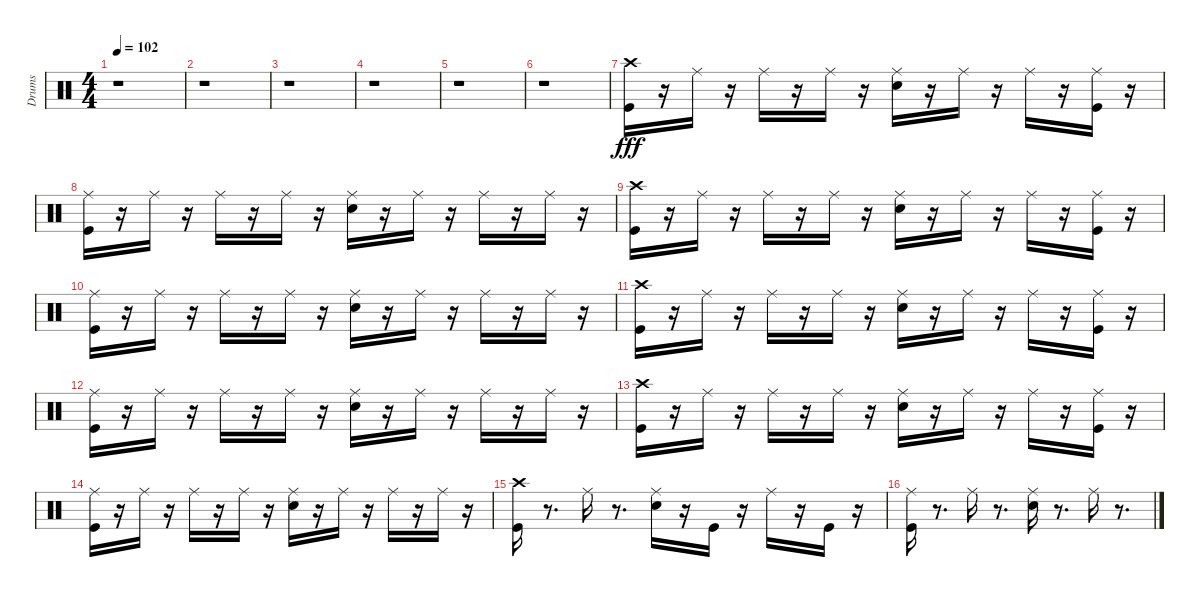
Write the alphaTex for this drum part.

\track ("Drums" "Drums") {instrument percussion}
\staff {score}
\articulation defaults
\ts (4 4)
\tempo 102
\clef neutral
\ks c
r.1{dy fff} |
r.1 |
r.1 |
r.1 |
r.1 |
r.1 |
("Crash high (hit)" "Kick (hit)").16 r.16 "Ride (middle)".16 r.16 "Ride (middle)".16 r.16 "Ride (middle)".16 r.16 ("Snare (hit) 2" "Ride (middle)").16 r.16 "Ride (middle)".16 r.16 "Ride (middle)".16 r.16 ("Kick (hit)" "Ride (middle)").16 r.16 |
("Ride (middle)" "Kick (hit)").16 r.16 "Ride (middle)".16 r.16 "Ride (middle)".16 r.16 "Ride (middle)".16 r.16 ("Ride (middle)" "Snare (hit) 2").16 r.16 "Ride (middle)".16 r.16 "Ride (middle)".16 r.16 "Ride (middle)".16 r.16 |
("Kick (hit)" "Crash high (hit)").16 r.16 "Ride (middle)".16 r.16 "Ride (middle)".16 r.16 "Ride (middle)".16 r.16 ("Ride (middle)" "Snare (hit) 2").16 r.16 "Ride (middle)".16 r.16 "Ride (middle)".16 r.16 ("Ride (middle)" "Kick (hit)").16 r.16 |
("Kick (hit)" "Ride (middle)").16 r.16 "Ride (middle)".16 r.16 "Ride (middle)".16 r.16 "Ride (middle)".16 r.16 ("Snare (hit) 2" "Ride (middle)").16 r.16 "Ride (middle)".16 r.16 "Ride (middle)".16 r.16 "Ride (middle)".16 r.16 |
("Kick (hit)" "Crash high (hit)").16 r.16 "Ride (middle)".16 r.16 "Ride (middle)".16 r.16 "Ride (middle)".16 r.16 ("Ride (middle)" "Snare (hit) 2").16 r.16 "Ride (middle)".16 r.16 "Ride (middle)".16 r.16 ("Ride (middle)" "Kick (hit)").16 r.16 |
("Kick (hit)" "Ride (middle)").16 r.16 "Ride (middle)".16 r.16 "Ride (middle)".16 r.16 "Ride (middle)".16 r.16 ("Snare (hit) 2" "Ride (middle)").16 r.16 "Ride (middle)".16 r.16 "Ride (middle)".16 r.16 "Ride (middle)".16 r.16 |
("Crash high (hit)" "Kick (hit)").16 r.16 "Ride (middle)".16 r.16 "Ride (middle)".16 r.16 "Ride (middle)".16 r.16 ("Snare (hit) 2" "Ride (middle)").16 r.16 "Ride (middle)".16 r.16 "Ride (middle)".16 r.16 ("Kick (hit)" "Ride (middle)").16 r.16 |
("Ride (middle)" "Kick (hit)").16 r.16 "Ride (middle)".16 r.16 "Ride (middle)".16 r.16 "Ride (middle)".16 r.16 ("Ride (middle)" "Snare (hit) 2").16 r.16 "Ride (middle)".16 r.16 "Ride (middle)".16 r.16 "Ride (middle)".16 r.16 |
("Crash high (hit)" "Kick (hit)").16 r.8{d} "Ride (middle)".16 r.8{d} ("Snare (hit) 2" "Ride (middle)").16 r.16 "Kick (hit)".16 r.16 "Ride (middle)".16 r.16 "Kick (hit)".16 r.16 |
("Ride (middle)" "Kick (hit)").16 r.8{d} "Ride (middle)".16 r.8{d} ("Ride (middle)" "Snare (hit) 2").16 r.8{d} "Ride (middle)".16 r.8{d}
